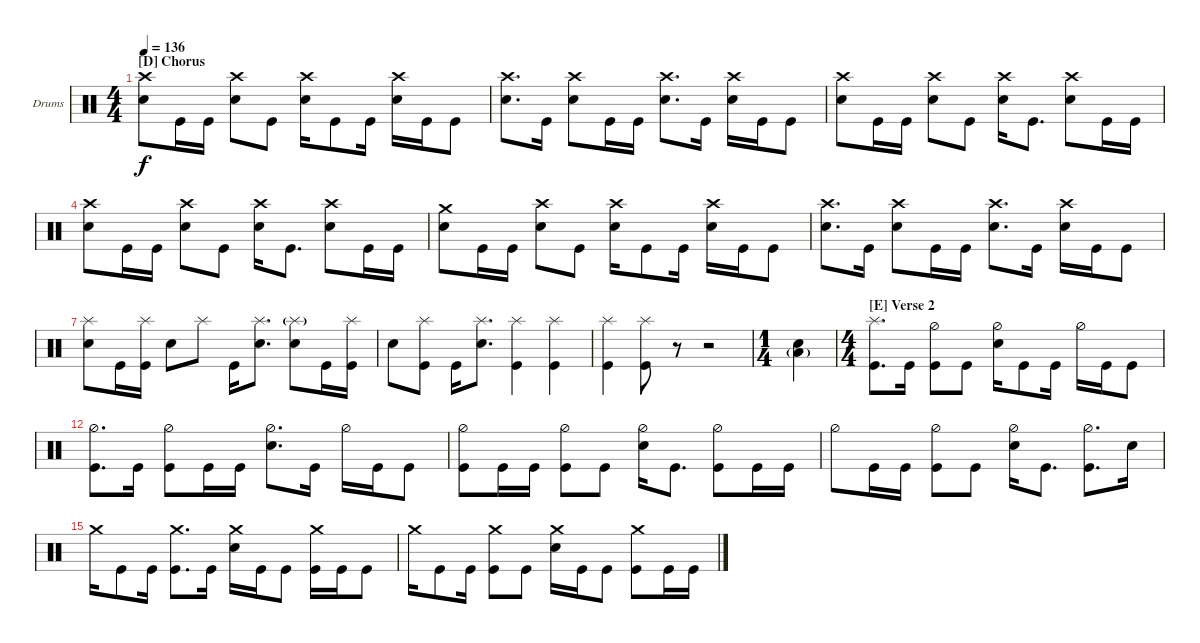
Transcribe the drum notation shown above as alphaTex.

\defaultSystemsLayout 4
\bracketExtendMode groupsimilarinstruments
\firstSystemTrackNameOrientation horizontal
\otherSystemsTrackNameOrientation horizontal
\defaultBarNumberDisplay FirstOfSystem
\track ("Drumkit" "Drums") {multiBarRest instrument percussion}
\staff {score}
\articulation defaults
\ts (4 4)
\section ("D" "Chorus")
\tempo 136
\clef neutral
\ks c
("Crash high (hit)" "Snare (hit) 2").8{dy f} "Kick (hit)".16 "Kick (hit)".16 ("Crash high (hit)" "Snare (hit) 2").8 "Kick (hit)".8 ("Crash high (hit)" "Snare (hit) 2").16 "Kick (hit)".8 "Kick (hit)".16 ("Crash high (hit)" "Snare (hit) 2").16 "Kick (hit)".16 "Kick (hit)".8 |
("Snare (hit) 2" "Crash high (hit)").8{d} "Kick (hit)".16 ("Snare (hit) 2" "Crash high (hit)").8 "Kick (hit)".16 "Kick (hit)".16 ("Snare (hit) 2" "Crash high (hit)").8{d} "Kick (hit)".16 ("Snare (hit) 2" "Crash high (hit)").16 "Kick (hit)".16 "Kick (hit)".8 |
("Crash high (hit)" "Snare (hit) 2").8 "Kick (hit)".16 "Kick (hit)".16 ("Crash high (hit)" "Snare (hit) 2").8 "Kick (hit)".8 ("Crash high (hit)" "Snare (hit) 2").16 "Kick (hit)".8{d} ("Crash high (hit)" "Snare (hit) 2").8 "Kick (hit)".16 "Kick (hit)".16 |
("Crash high (hit)" "Snare (hit) 2").8 "Kick (hit)".16 "Kick (hit)".16 ("Crash high (hit)" "Snare (hit) 2").8 "Kick (hit)".8 ("Crash high (hit)" "Snare (hit) 2").16 "Kick (hit)".8{d} ("Crash high (hit)" "Snare (hit) 2").8 "Kick (hit)".16 "Kick (hit)".16 |
("Snare (hit) 2" "Crash medium (hit)").8 "Kick (hit)".16 "Kick (hit)".16 ("Crash high (hit)" "Snare (hit) 2").8 "Kick (hit)".8 ("Crash high (hit)" "Snare (hit) 2").16 "Kick (hit)".8 "Kick (hit)".16 ("Crash high (hit)" "Snare (hit) 2").16 "Kick (hit)".16 "Kick (hit)".8 |
("Snare (hit) 2" "Crash high (hit)").8{d} "Kick (hit)".16 ("Snare (hit) 2" "Crash high (hit)").8 "Kick (hit)".16 "Kick (hit)".16 ("Snare (hit) 2" "Crash high (hit)").8{d} "Kick (hit)".16 ("Snare (hit) 2" "Crash high (hit)").16 "Kick (hit)".16 "Kick (hit)".8 |
("Snare (hit) 2" "Splash (hit)").8 "Kick (hit)".16 ("Kick (hit)" "Splash (hit)").16 "Snare (hit) 2".8 "Splash (hit)".8 "Kick (hit)".16 ("Snare (hit) 2" "Splash (hit)").8{d} ("Snare (hit) 2" "Splash (hit)"{g}).8 "Kick (hit)".16 ("Kick (hit)" "Splash (hit)").16 |
"Snare (hit) 2".8 ("Splash (hit)" "Kick (hit)").8 "Kick (hit)".16 ("Snare (hit) 2" "Splash (hit)").8{d} ("Splash (hit)" "Kick (hit)").4 ("Splash (hit)" "Kick (hit)").4 |
("Kick (hit)" "Splash (hit)").4 ("Kick (hit)" "Splash (hit)").8 r.8 r.2 |
\ts (1 4)
("Snare (hit) 2" "Low Tom (hit)"{g}).4 |
\ts (4 4)
\section ("E" "Verse 2")
("Kick (hit)" "Splash (hit)").8{d} "Kick (hit)".16 ("Hi-Hat (half)" "Kick (hit)").8 "Kick (hit)".8 ("Hi-Hat (half)" "Snare (hit) 2").16 "Kick (hit)".8 "Kick (hit)".16 "Hi-Hat (half)".16 "Kick (hit)".16 "Kick (hit)".8 |
("Hi-Hat (half)" "Kick (hit)").8{d} "Kick (hit)".16 ("Hi-Hat (half)" "Kick (hit)").8 "Kick (hit)".16 "Kick (hit)".16 ("Hi-Hat (half)" "Snare (hit) 2").8{d} "Kick (hit)".16 "Hi-Hat (half)".16 "Kick (hit)".16 "Kick (hit)".8 |
("Hi-Hat (half)" "Kick (hit)").8 "Kick (hit)".16 "Kick (hit)".16 ("Hi-Hat (half)" "Kick (hit)").8 "Kick (hit)".8 ("Hi-Hat (half)" "Snare (hit) 2").16 "Kick (hit)".8{d} ("Hi-Hat (half)" "Kick (hit)").8 "Kick (hit)".16 "Kick (hit)".16 |
"Hi-Hat (half)".8 "Kick (hit)".16 "Kick (hit)".16 ("Hi-Hat (half)" "Kick (hit)").8 "Kick (hit)".8 ("Hi-Hat (half)" "Snare (hit) 2").16 "Kick (hit)".8{d} ("Hi-Hat (half)" "Kick (hit)").8{d} "Snare (hit) 2".16 |
"Crash medium (hit)".16 "Kick (hit)".8 "Kick (hit)".16 ("Kick (hit)" "Crash medium (hit)").8{d} "Kick (hit)".16 ("Crash medium (hit)" "Snare (hit) 2").16 "Kick (hit)".16 "Kick (hit)".8 ("Crash medium (hit)" "Kick (hit)").16 "Kick (hit)".16 "Kick (hit)".8 |
"Crash medium (hit)".16 "Kick (hit)".8 "Kick (hit)".16 ("Crash medium (hit)" "Kick (hit)").8 "Kick (hit)".8 ("Crash medium (hit)" "Snare (hit) 2").16 "Kick (hit)".16 "Kick (hit)".8 ("Crash medium (hit)" "Kick (hit)").8 "Kick (hit)".16 "Kick (hit)".16
